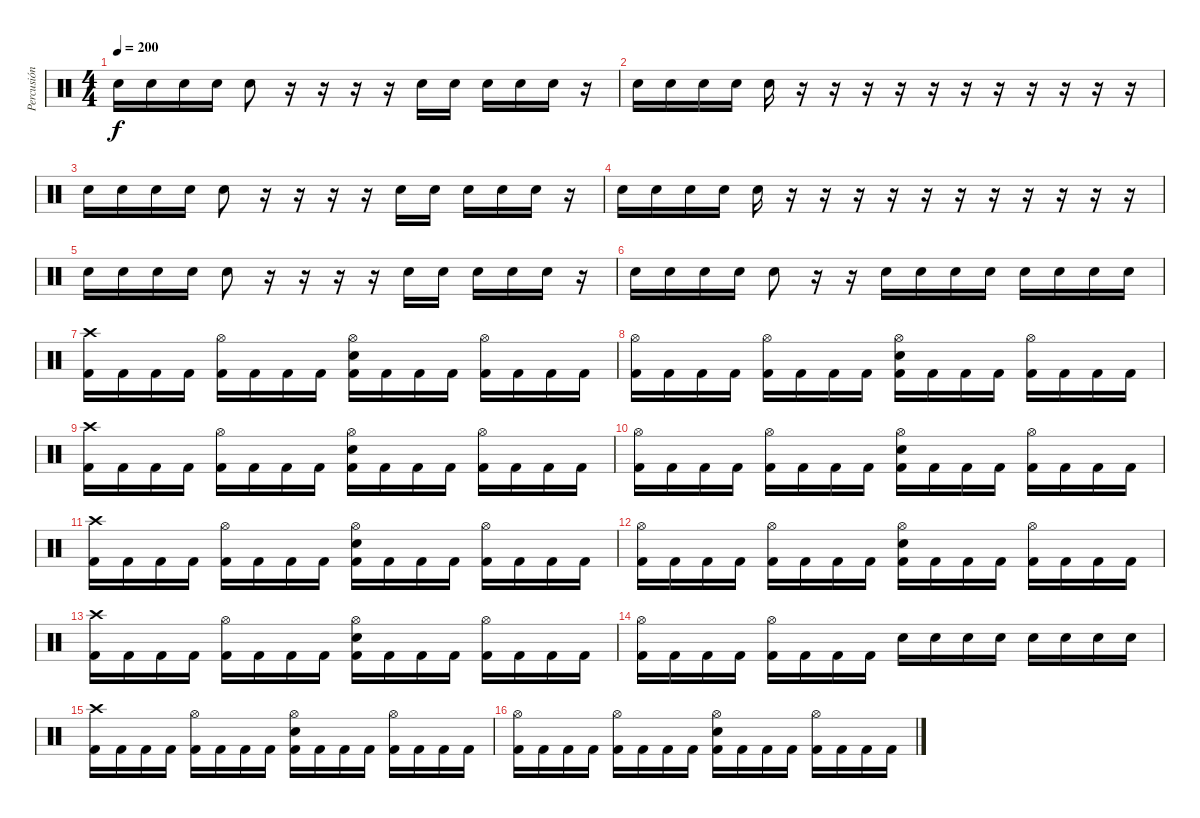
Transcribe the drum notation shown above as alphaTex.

\track ("Percusión" "Percusión") {instrument percussion}
\staff {score}
\articulation defaults
\ts (4 4)
\tempo 200
\clef neutral
\ks c "Snare (hit) 2".16{dy f} "Snare (hit) 2".16 "Snare (hit) 2".16 "Snare (hit) 2".16 "Snare (hit) 2".8
r.16 r.16 r.16 r.16 "Snare (hit) 2".16 "Snare (hit) 2".16 "Snare (hit) 2".16 "Snare (hit) 2".16 "Snare (hit) 2".16 r.16 |
"Snare (hit) 2".16 "Snare (hit) 2".16 "Snare (hit) 2".16 "Snare (hit) 2".16 "Snare (hit) 2".16 r.16 r.16 r.16 r.16 r.16 r.16 r.16 r.16 r.16 r.16 r.16 |
"Snare (hit) 2".16 "Snare (hit) 2".16 "Snare (hit) 2".16 "Snare (hit) 2".16 "Snare (hit) 2".8 r.16 r.16 r.16 r.16 "Snare (hit) 2".16 "Snare (hit) 2".16 "Snare (hit) 2".16 "Snare (hit) 2".16 "Snare (hit) 2".16 r.16 |
"Snare (hit) 2".16 "Snare (hit) 2".16 "Snare (hit) 2".16 "Snare (hit) 2".16 "Snare (hit) 2".16 r.16 r.16 r.16 r.16 r.16 r.16 r.16 r.16 r.16 r.16 r.16 |
"Snare (hit) 2".16 "Snare (hit) 2".16 "Snare (hit) 2".16 "Snare (hit) 2".16 "Snare (hit) 2".8 r.16 r.16 r.16 r.16 "Snare (hit) 2".16 "Snare (hit) 2".16 "Snare (hit) 2".16 "Snare (hit) 2".16 "Snare (hit) 2".16 r.16 |
"Snare (hit) 2".16 "Snare (hit) 2".16 "Snare (hit) 2".16 "Snare (hit) 2".16 "Snare (hit) 2".8 r.16 r.16 "Snare (hit) 2".16 "Snare (hit) 2".16 "Snare (hit) 2".16 "Snare (hit) 2".16 "Snare (hit) 2".16 "Snare (hit) 2".16 "Snare (hit) 2".16 "Snare (hit) 2".16 |
("Kick (hit) 2" "Crash high (hit)").16 "Kick (hit) 2".16 "Kick (hit) 2".16 "Kick (hit) 2".16 ("Kick (hit) 2" "Hi-Hat (open)").16 "Kick (hit) 2".16 "Kick (hit) 2".16 "Kick (hit) 2".16 ("Kick (hit) 2" "Hi-Hat (open)" "Snare (hit) 2").16 "Kick (hit) 2".16 "Kick (hit) 2".16 "Kick (hit) 2".16 ("Kick (hit) 2" "Hi-Hat (open)").16 "Kick (hit) 2".16 "Kick (hit) 2".16 "Kick (hit) 2".16 |
("Kick (hit) 2" "Hi-Hat (open)").16 "Kick (hit) 2".16 "Kick (hit) 2".16 "Kick (hit) 2".16 ("Kick (hit) 2" "Hi-Hat (open)").16 "Kick (hit) 2".16 "Kick (hit) 2".16 "Kick (hit) 2".16 ("Kick (hit) 2" "Hi-Hat (open)" "Snare (hit) 2").16 "Kick (hit) 2".16 "Kick (hit) 2".16 "Kick (hit) 2".16 ("Kick (hit) 2" "Hi-Hat (open)").16 "Kick (hit) 2".16 "Kick (hit) 2".16 "Kick (hit) 2".16 |
("Kick (hit) 2" "Crash high (hit)").16 "Kick (hit) 2".16 "Kick (hit) 2".16 "Kick (hit) 2".16 ("Kick (hit) 2" "Hi-Hat (open)").16 "Kick (hit) 2".16 "Kick (hit) 2".16 "Kick (hit) 2".16 ("Kick (hit) 2" "Hi-Hat (open)" "Snare (hit) 2").16 "Kick (hit) 2".16 "Kick (hit) 2".16 "Kick (hit) 2".16 ("Kick (hit) 2" "Hi-Hat (open)").16 "Kick (hit) 2".16 "Kick (hit) 2".16 "Kick (hit) 2".16 |
("Kick (hit) 2" "Hi-Hat (open)").16 "Kick (hit) 2".16 "Kick (hit) 2".16 "Kick (hit) 2".16 ("Kick (hit) 2" "Hi-Hat (open)").16 "Kick (hit) 2".16 "Kick (hit) 2".16 "Kick (hit) 2".16 ("Kick (hit) 2" "Hi-Hat (open)" "Snare (hit) 2").16 "Kick (hit) 2".16 "Kick (hit) 2".16 "Kick (hit) 2".16 ("Kick (hit) 2" "Hi-Hat (open)").16 "Kick (hit) 2".16 "Kick (hit) 2".16 "Kick (hit) 2".16 |
("Kick (hit) 2" "Crash high (hit)").16 "Kick (hit) 2".16 "Kick (hit) 2".16 "Kick (hit) 2".16 ("Kick (hit) 2" "Hi-Hat (open)").16 "Kick (hit) 2".16 "Kick (hit) 2".16 "Kick (hit) 2".16 ("Kick (hit) 2" "Hi-Hat (open)" "Snare (hit) 2").16 "Kick (hit) 2".16 "Kick (hit) 2".16 "Kick (hit) 2".16 ("Kick (hit) 2" "Hi-Hat (open)").16 "Kick (hit) 2".16 "Kick (hit) 2".16 "Kick (hit) 2".16 |
("Kick (hit) 2" "Hi-Hat (open)").16 "Kick (hit) 2".16 "Kick (hit) 2".16 "Kick (hit) 2".16 ("Kick (hit) 2" "Hi-Hat (open)").16 "Kick (hit) 2".16 "Kick (hit) 2".16 "Kick (hit) 2".16 ("Kick (hit) 2" "Hi-Hat (open)" "Snare (hit) 2").16 "Kick (hit) 2".16 "Kick (hit) 2".16 "Kick (hit) 2".16 ("Kick (hit) 2" "Hi-Hat (open)").16 "Kick (hit) 2".16 "Kick (hit) 2".16 "Kick (hit) 2".16 |
("Kick (hit) 2" "Crash high (hit)").16 "Kick (hit) 2".16 "Kick (hit) 2".16 "Kick (hit) 2".16 ("Kick (hit) 2" "Hi-Hat (open)").16 "Kick (hit) 2".16 "Kick (hit) 2".16 "Kick (hit) 2".16 ("Kick (hit) 2" "Hi-Hat (open)" "Snare (hit) 2").16 "Kick (hit) 2".16 "Kick (hit) 2".16 "Kick (hit) 2".16 ("Kick (hit) 2" "Hi-Hat (open)").16 "Kick (hit) 2".16 "Kick (hit) 2".16 "Kick (hit) 2".16 |
("Kick (hit) 2" "Hi-Hat (open)").16 "Kick (hit) 2".16 "Kick (hit) 2".16 "Kick (hit) 2".16 ("Kick (hit) 2" "Hi-Hat (open)").16 "Kick (hit) 2".16 "Kick (hit) 2".16 "Kick (hit) 2".16 "Snare (hit) 2".16 "Snare (hit) 2".16 "Snare (hit) 2".16 "Snare (hit) 2".16 "Snare (hit) 2".16 "Snare (hit) 2".16 "Snare (hit) 2".16 "Snare (hit) 2".16 |
("Kick (hit) 2" "Crash high (hit)").16 "Kick (hit) 2".16 "Kick (hit) 2".16 "Kick (hit) 2".16 ("Kick (hit) 2" "Hi-Hat (open)").16 "Kick (hit) 2".16 "Kick (hit) 2".16 "Kick (hit) 2".16 ("Kick (hit) 2" "Hi-Hat (open)" "Snare (hit) 2").16 "Kick (hit) 2".16 "Kick (hit) 2".16 "Kick (hit) 2".16 ("Kick (hit) 2" "Hi-Hat (open)").16 "Kick (hit) 2".16 "Kick (hit) 2".16 "Kick (hit) 2".16 |
("Kick (hit) 2" "Hi-Hat (open)").16 "Kick (hit) 2".16 "Kick (hit) 2".16 "Kick (hit) 2".16 ("Kick (hit) 2" "Hi-Hat (open)").16 "Kick (hit) 2".16 "Kick (hit) 2".16 "Kick (hit) 2".16 ("Kick (hit) 2" "Hi-Hat (open)" "Snare (hit) 2").16 "Kick (hit) 2".16 "Kick (hit) 2".16 "Kick (hit) 2".16 ("Kick (hit) 2" "Hi-Hat (open)").16 "Kick (hit) 2".16 "Kick (hit) 2".16 "Kick (hit) 2".16
